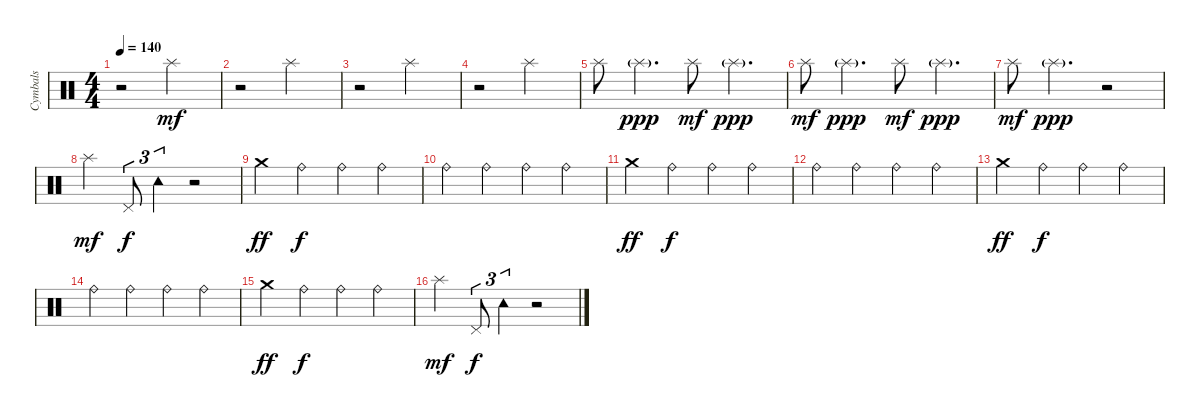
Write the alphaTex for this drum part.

\track ("Cymbals" "Cymbals") {instrument percussion}
\staff {score}
\articulation defaults
\ts (4 4)
\tempo 140
\clef neutral
\ks c
r.2{dy ppp} "Splash (hit)".2{dy mf} |
r.2 "Splash (hit)".2 |
r.2 "Splash (hit)".2 |
r.2 "Splash (hit)".2 |
"Splash (hit)".8 "Splash (hit)"{g}.4{d dy ppp} "Splash (hit)".8{dy mf} "Splash (hit)"{g}.4{d dy ppp} |
"Splash (hit)".8{dy mf} "Splash (hit)"{g}.4{d dy ppp} "Splash (hit)".8{dy mf} "Splash (hit)"{g}.4{d dy ppp} |
"Splash (hit)".8{dy mf} "Splash (hit)"{g}.4{d dy ppp} r.2 |
"Splash (hit)".4{dy mf} "Pedal Hi-Hat (hit)".8{tu (3 2) dy f} "Tambourine (hit)".4{tu (3 2)} r.2 |
"Crash medium (hit)".4{dy ff} "Ride (bell)".4{dy f} "Ride (bell)".4 "Ride (bell)".4 |
"Ride (bell)".4 "Ride (bell)".4 "Ride (bell)".4 "Ride (bell)".4 |
"Crash medium (hit)".4{dy ff} "Ride (bell)".4{dy f} "Ride (bell)".4 "Ride (bell)".4 |
"Ride (bell)".4 "Ride (bell)".4 "Ride (bell)".4 "Ride (bell)".4 |
"Crash medium (hit)".4{dy ff} "Ride (bell)".4{dy f} "Ride (bell)".4 "Ride (bell)".4 |
"Ride (bell)".4 "Ride (bell)".4 "Ride (bell)".4 "Ride (bell)".4 |
"Crash medium (hit)".4{dy ff} "Ride (bell)".4{dy f} "Ride (bell)".4 "Ride (bell)".4 |
"Splash (hit)".4{dy mf} "Pedal Hi-Hat (hit)".8{tu (3 2) dy f} "Tambourine (hit)".4{tu (3 2)} r.2
